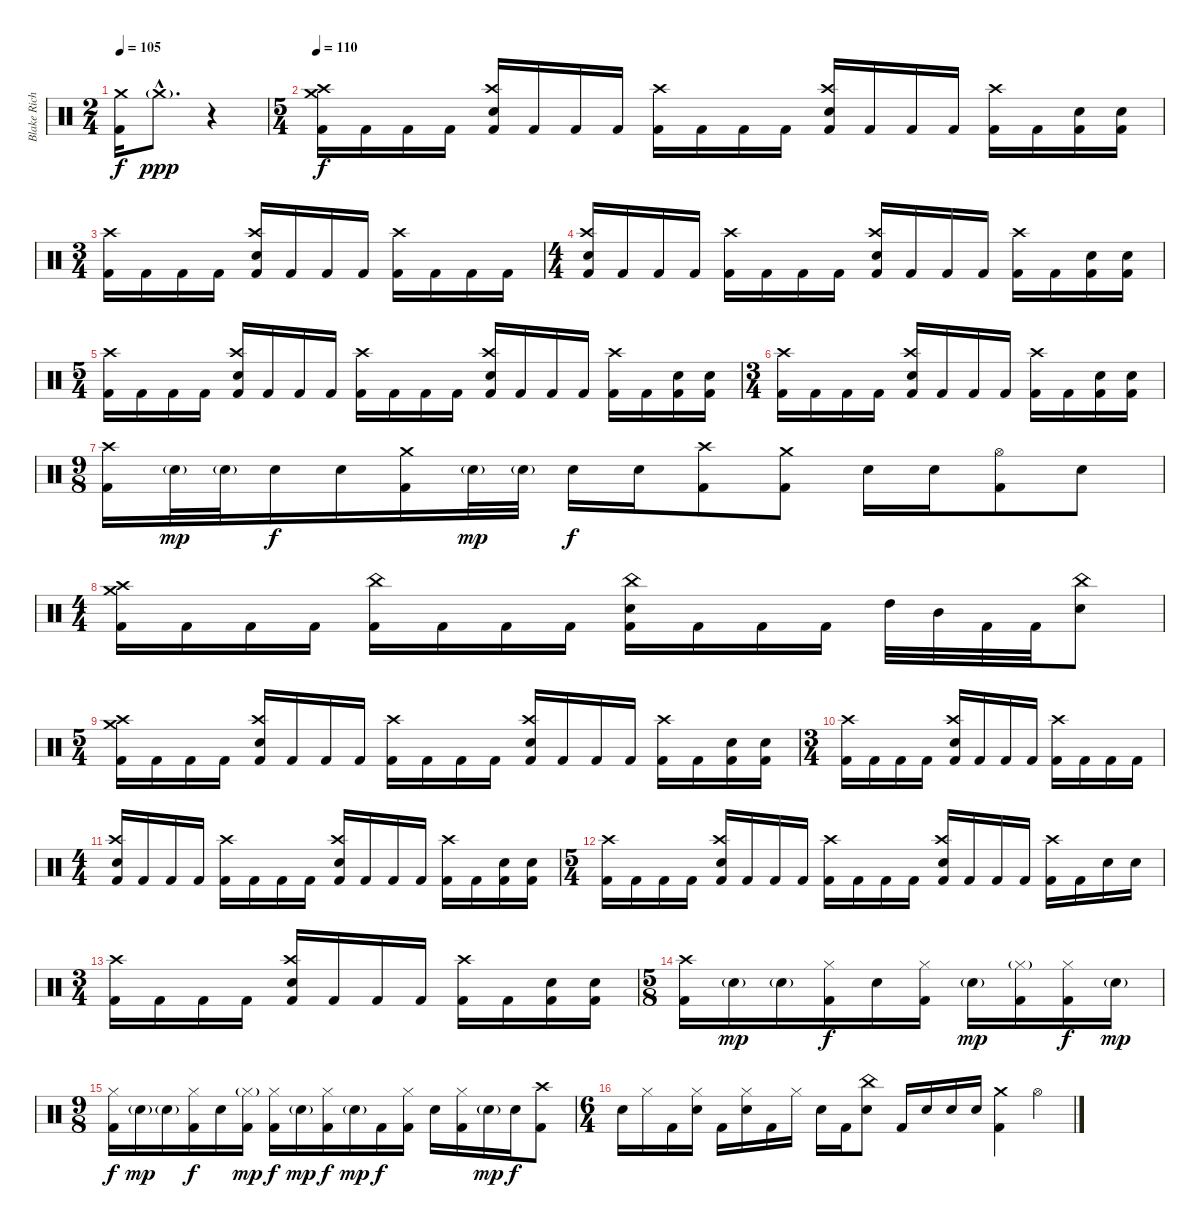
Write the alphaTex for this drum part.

\track ("Blake Richardson - Drums" "Blake Rich") {instrument percussion}
\staff {score}
\articulation defaults
\ts (2 4)
\tempo 105
\clef neutral
\ks c
("Crash medium (hit)" "Kick (hit) 2").16{dy f} "Crash medium (hit)"{g hac}.8{d dy ppp volume 0} r.4 |
\ts (5 4)
\tempo 110
("Crash high (hit)" "Crash medium (hit)" "Kick (hit) 2").16{dy f volume 16} "Kick (hit) 2".16 "Kick (hit) 2".16 "Kick (hit) 2".16 ("Crash high (hit)" "Electric Snare (hit)" "Kick (hit) 2").16 "Kick (hit) 2".16 "Kick (hit) 2".16 "Kick (hit) 2".16 ("Crash high (hit)" "Kick (hit) 2").16 "Kick (hit) 2".16 "Kick (hit) 2".16 "Kick (hit) 2".16 ("Crash high (hit)" "Electric Snare (hit)" "Kick (hit) 2").16 "Kick (hit) 2".16 "Kick (hit) 2".16 "Kick (hit) 2".16 ("Crash high (hit)" "Kick (hit) 2").16 "Kick (hit) 2".16 ("Electric Snare (hit)" "Kick (hit) 2").16 ("Electric Snare (hit)" "Kick (hit) 2").16 |
\ts (3 4)
("Crash high (hit)" "Kick (hit) 2").16 "Kick (hit) 2".16 "Kick (hit) 2".16 "Kick (hit) 2".16 ("Crash high (hit)" "Electric Snare (hit)" "Kick (hit) 2").16 "Kick (hit) 2".16 "Kick (hit) 2".16 "Kick (hit) 2".16 ("Crash high (hit)" "Kick (hit) 2").16 "Kick (hit) 2".16 "Kick (hit) 2".16 "Kick (hit) 2".16 |
\ts (4 4)
("Crash high (hit)" "Electric Snare (hit)" "Kick (hit) 2").16 "Kick (hit) 2".16 "Kick (hit) 2".16 "Kick (hit) 2".16 ("Crash high (hit)" "Kick (hit) 2").16 "Kick (hit) 2".16 "Kick (hit) 2".16 "Kick (hit) 2".16 ("Crash high (hit)" "Electric Snare (hit)" "Kick (hit) 2").16 "Kick (hit) 2".16 "Kick (hit) 2".16 "Kick (hit) 2".16 ("Crash high (hit)" "Kick (hit) 2").16 "Kick (hit) 2".16 ("Electric Snare (hit)" "Kick (hit) 2").16 ("Electric Snare (hit)" "Kick (hit) 2").16 |
\ts (5 4)
("Crash high (hit)" "Kick (hit) 2").16 "Kick (hit) 2".16 "Kick (hit) 2".16 "Kick (hit) 2".16 ("Crash high (hit)" "Electric Snare (hit)" "Kick (hit) 2").16 "Kick (hit) 2".16 "Kick (hit) 2".16 "Kick (hit) 2".16 ("Crash high (hit)" "Kick (hit) 2").16 "Kick (hit) 2".16 "Kick (hit) 2".16 "Kick (hit) 2".16 ("Crash high (hit)" "Electric Snare (hit)" "Kick (hit) 2").16 "Kick (hit) 2".16 "Kick (hit) 2".16 "Kick (hit) 2".16 ("Crash high (hit)" "Kick (hit) 2").16 "Kick (hit) 2".16 ("Electric Snare (hit)" "Kick (hit) 2").16 ("Electric Snare (hit)" "Kick (hit) 2").16 |
\ts (3 4)
("Crash high (hit)" "Kick (hit) 2").16 "Kick (hit) 2".16 "Kick (hit) 2".16 "Kick (hit) 2".16 ("Crash high (hit)" "Electric Snare (hit)" "Kick (hit) 2").16 "Kick (hit) 2".16 "Kick (hit) 2".16 "Kick (hit) 2".16 ("Crash high (hit)" "Kick (hit) 2").16 "Kick (hit) 2".16 ("Electric Snare (hit)" "Kick (hit) 2").16 ("Electric Snare (hit)" "Kick (hit) 2").16 |
\ts (9 8)
("Crash high (hit)" "Kick (hit) 2").16 "Electric Snare (hit)"{g}.32{dy mp} "Electric Snare (hit)"{g}.32 "Electric Snare (hit)".16{dy f} "Electric Snare (hit)".16 ("Crash medium (hit)" "Kick (hit) 2").16 "Electric Snare (hit)"{g}.32{dy mp} "Electric Snare (hit)"{g}.32 "Electric Snare (hit)".16{dy f} "Electric Snare (hit)".16 ("Crash high (hit)" "Kick (hit) 2").8 ("Crash medium (hit)" "Kick (hit) 2").8 "Electric Snare (hit)".16 "Electric Snare (hit)".16 ("Hi-Hat (open)" "Kick (hit) 2").8 "Electric Snare (hit)".8 |
\ts (4 4)
("Crash high (hit)" "Crash medium (hit)" "Kick (hit) 2").16 "Kick (hit) 2".16 "Kick (hit) 2".16 "Kick (hit) 2".16 ("China (hit)" "Kick (hit) 2").16 "Kick (hit) 2".16 "Kick (hit) 2".16 "Kick (hit) 2".16 ("China (hit)" "Electric Snare (hit)" "Kick (hit) 2").16 "Kick (hit) 2".16 "Kick (hit) 2".16 "Kick (hit) 2".16 "High Tom (hit)".32 "Mid Tom (hit)".32 "Kick (hit) 2".32 "Kick (hit) 2".32 ("China (hit)" "Electric Snare (hit)").8 |
\ts (5 4)
("Crash high (hit)" "Crash medium (hit)" "Kick (hit) 2").16 "Kick (hit) 2".16 "Kick (hit) 2".16 "Kick (hit) 2".16 ("Crash high (hit)" "Electric Snare (hit)" "Kick (hit) 2").16 "Kick (hit) 2".16 "Kick (hit) 2".16 "Kick (hit) 2".16 ("Crash high (hit)" "Kick (hit) 2").16 "Kick (hit) 2".16 "Kick (hit) 2".16 "Kick (hit) 2".16 ("Crash high (hit)" "Electric Snare (hit)" "Kick (hit) 2").16 "Kick (hit) 2".16 "Kick (hit) 2".16 "Kick (hit) 2".16 ("Crash high (hit)" "Kick (hit) 2").16 "Kick (hit) 2".16 ("Electric Snare (hit)" "Kick (hit) 2").16 ("Electric Snare (hit)" "Kick (hit) 2").16 |
\ts (3 4)
("Crash high (hit)" "Kick (hit) 2").16 "Kick (hit) 2".16 "Kick (hit) 2".16 "Kick (hit) 2".16 ("Crash high (hit)" "Electric Snare (hit)" "Kick (hit) 2").16 "Kick (hit) 2".16 "Kick (hit) 2".16 "Kick (hit) 2".16 ("Crash high (hit)" "Kick (hit) 2").16 "Kick (hit) 2".16 "Kick (hit) 2".16 "Kick (hit) 2".16 |
\ts (4 4)
("Crash high (hit)" "Electric Snare (hit)" "Kick (hit) 2").16 "Kick (hit) 2".16 "Kick (hit) 2".16 "Kick (hit) 2".16 ("Crash high (hit)" "Kick (hit) 2").16 "Kick (hit) 2".16 "Kick (hit) 2".16 "Kick (hit) 2".16 ("Crash high (hit)" "Electric Snare (hit)" "Kick (hit) 2").16 "Kick (hit) 2".16 "Kick (hit) 2".16 "Kick (hit) 2".16 ("Crash high (hit)" "Kick (hit) 2").16 "Kick (hit) 2".16 ("Electric Snare (hit)" "Kick (hit) 2").16 ("Electric Snare (hit)" "Kick (hit) 2").16 |
\ts (5 4)
("Crash high (hit)" "Kick (hit) 2").16 "Kick (hit) 2".16 "Kick (hit) 2".16 "Kick (hit) 2".16 ("Crash high (hit)" "Electric Snare (hit)" "Kick (hit) 2").16 "Kick (hit) 2".16 "Kick (hit) 2".16 "Kick (hit) 2".16 ("Crash high (hit)" "Kick (hit) 2").16 "Kick (hit) 2".16 "Kick (hit) 2".16 "Kick (hit) 2".16 ("Crash high (hit)" "Electric Snare (hit)" "Kick (hit) 2").16 "Kick (hit) 2".16 "Kick (hit) 2".16 "Kick (hit) 2".16 ("Crash high (hit)" "Kick (hit) 2").16 "Kick (hit) 2".16 "Electric Snare (hit)".16 "Electric Snare (hit)".16 |
\ts (3 4)
("Crash high (hit)" "Kick (hit) 2").16 "Kick (hit) 2".16 "Kick (hit) 2".16 "Kick (hit) 2".16 ("Crash high (hit)" "Electric Snare (hit)" "Kick (hit) 2").16 "Kick (hit) 2".16 "Kick (hit) 2".16 "Kick (hit) 2".16 ("Crash high (hit)" "Kick (hit) 2").16 "Kick (hit) 2".16 ("Electric Snare (hit)" "Kick (hit) 2").16 ("Electric Snare (hit)" "Kick (hit) 2").16 |
\ts (5 8)
("Crash high (hit)" "Kick (hit) 2").16 "Electric Snare (hit)"{g}.16{dy mp} "Electric Snare (hit)"{g}.16 ("Hi-Hat (closed)" "Kick (hit) 2").16{dy f} "Electric Snare (hit)".16 ("Hi-Hat (closed)" "Kick (hit) 2").16 "Electric Snare (hit)"{g}.16{dy mp} ("Hi-Hat (closed)"{g} "Kick (hit) 2").16 ("Hi-Hat (closed)" "Kick (hit) 2").16{dy f} "Electric Snare (hit)"{g}.16{dy mp} |
\ts (9 8)
("Hi-Hat (closed)" "Kick (hit) 2").16{dy f} "Electric Snare (hit)"{g}.16{dy mp} "Electric Snare (hit)"{g}.16 ("Hi-Hat (closed)" "Kick (hit) 2").16{dy f} "Electric Snare (hit)".16 ("Hi-Hat (closed)"{g} "Kick (hit) 2").16{dy mp} ("Hi-Hat (closed)" "Kick (hit) 2").16{dy f} "Electric Snare (hit)"{g}.16{dy mp} ("Hi-Hat (closed)" "Kick (hit) 2").16{dy f} "Electric Snare (hit)"{g}.16{dy mp} "Kick (hit) 2".16{dy f} ("Hi-Hat (closed)" "Kick (hit) 2").16 "Electric Snare (hit)".16 ("Hi-Hat (closed)" "Kick (hit) 2").16 "Electric Snare (hit)"{g}.16{dy mp} "Electric Snare (hit)".16{dy f} ("Crash high (hit)" "Kick (hit) 2").8 |
\ts (6 4)
"Electric Snare (hit)".16 "Hi-Hat (closed)".16 "Kick (hit) 2".16 ("Hi-Hat (closed)" "Electric Snare (hit)").16 "Kick (hit) 2".16 ("Hi-Hat (closed)" "Electric Snare (hit)").16 "Kick (hit) 2".16 "Hi-Hat (closed)".16 "Electric Snare (hit)".16 "Kick (hit) 2".16 ("China (hit)" "Electric Snare (hit)").8 "Kick (hit) 2".16 "Electric Snare (hit)".16 "Electric Snare (hit)".16 "Electric Snare (hit)".16 ("Crash medium (hit)" "Kick (hit) 2").4 "Hi-Hat (open)".4
